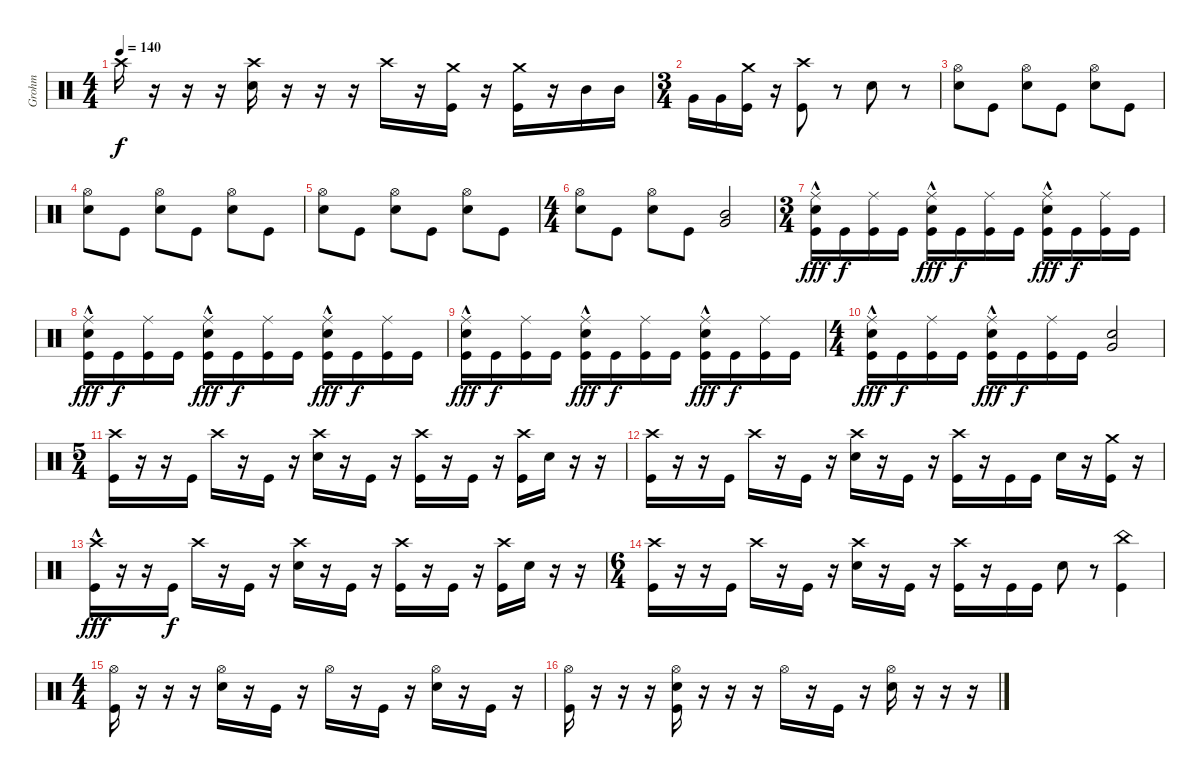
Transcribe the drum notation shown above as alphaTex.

\track ("Grohm" "Grohm") {instrument percussion}
\staff {score}
\articulation defaults
\ts (4 4)
\tempo 140
\clef neutral
\ks c "Crash high (hit)".16{dy f}
r.16 r.16 r.16 ("Crash high (hit)" "Snare (hit) 2").16 r.16 r.16 r.16 "Crash high (hit)".16 r.16 ("Crash medium (hit)" "Kick (hit)").16 r.16 ("Crash medium (hit)" "Kick (hit)").16 r.16 "Mid Tom (hit)".16 "Mid Tom (hit)".16 |
\ts (3 4)
"Very Low Tom (hit)".16 "Very Low Tom (hit)".16 ("Crash medium (hit)" "Kick (hit)").16 r.16 ("Crash high (hit)" "Kick (hit)").8 r.8 "Snare (hit) 2".8 r.8 |
("Hi-Hat (open)" "Snare (hit) 2").8 "Kick (hit)".8 ("Hi-Hat (open)" "Snare (hit) 2").8 "Kick (hit)".8 ("Hi-Hat (open)" "Snare (hit) 2").8 "Kick (hit)".8 |
("Hi-Hat (open)" "Snare (hit) 2").8 "Kick (hit)".8 ("Hi-Hat (open)" "Snare (hit) 2").8 "Kick (hit)".8 ("Hi-Hat (open)" "Snare (hit) 2").8 "Kick (hit)".8 |
("Hi-Hat (open)" "Snare (hit) 2").8 "Kick (hit)".8 ("Hi-Hat (open)" "Snare (hit) 2").8 "Kick (hit)".8 ("Hi-Hat (open)" "Snare (hit) 2").8 "Kick (hit)".8 |
\ts (4 4)
("Hi-Hat (open)" "Snare (hit) 2").8 "Kick (hit)".8 ("Hi-Hat (open)" "Snare (hit) 2").8 "Kick (hit)".8 ("Mid Tom (hit)" "Very Low Tom (hit)").2 |
\ts (3 4)
("Ride (middle)"{hac} "Snare (hit) 2" "Kick (hit)").16{dy fff} "Kick (hit)".16{dy f} ("Ride (middle)" "Kick (hit)").16 "Kick (hit)".16 ("Ride (middle)"{hac} "Snare (hit) 2" "Kick (hit)").16{dy fff} "Kick (hit)".16{dy f} ("Ride (middle)" "Kick (hit)").16 "Kick (hit)".16 ("Ride (middle)"{hac} "Snare (hit) 2" "Kick (hit)").16{dy fff} "Kick (hit)".16{dy f} ("Ride (middle)" "Kick (hit)").16 "Kick (hit)".16 |
("Ride (middle)"{hac} "Snare (hit) 2" "Kick (hit)").16{dy fff} "Kick (hit)".16{dy f} ("Ride (middle)" "Kick (hit)").16 "Kick (hit)".16 ("Ride (middle)"{hac} "Snare (hit) 2" "Kick (hit)").16{dy fff} "Kick (hit)".16{dy f} ("Ride (middle)" "Kick (hit)").16 "Kick (hit)".16 ("Ride (middle)"{hac} "Snare (hit) 2" "Kick (hit)").16{dy fff} "Kick (hit)".16{dy f} ("Ride (middle)" "Kick (hit)").16 "Kick (hit)".16 |
("Ride (middle)"{hac} "Snare (hit) 2" "Kick (hit)").16{dy fff} "Kick (hit)".16{dy f} ("Ride (middle)" "Kick (hit)").16 "Kick (hit)".16 ("Ride (middle)"{hac} "Snare (hit) 2" "Kick (hit)").16{dy fff} "Kick (hit)".16{dy f} ("Ride (middle)" "Kick (hit)").16 "Kick (hit)".16 ("Ride (middle)"{hac} "Snare (hit) 2" "Kick (hit)").16{dy fff} "Kick (hit)".16{dy f} ("Ride (middle)" "Kick (hit)").16 "Kick (hit)".16 |
\ts (4 4)
("Ride (middle)"{hac} "Snare (hit) 2" "Kick (hit)").16{dy fff} "Kick (hit)".16{dy f} ("Ride (middle)" "Kick (hit)").16 "Kick (hit)".16 ("Ride (middle)"{hac} "Snare (hit) 2" "Kick (hit)").16{dy fff} "Kick (hit)".16{dy f} ("Ride (middle)" "Kick (hit)").16 "Kick (hit)".16 ("Snare (hit) 2" "Very Low Tom (hit)").2 |
\ts (5 4)
("Crash high (hit)" "Kick (hit)").16 r.16 r.16 "Kick (hit)".16 "Crash high (hit)".16 r.16 "Kick (hit)".16 r.16 ("Crash high (hit)" "Snare (hit) 2").16 r.16 "Kick (hit)".16 r.16 ("Crash high (hit)" "Kick (hit)").16 r.16 "Kick (hit)".16 r.16 ("Crash high (hit)" "Kick (hit)").16 "Snare (hit) 2".16 r.16 r.16 |
("Crash high (hit)" "Kick (hit)").16 r.16 r.16 "Kick (hit)".16 "Crash high (hit)".16 r.16 "Kick (hit)".16 r.16 ("Crash high (hit)" "Snare (hit) 2").16 r.16 "Kick (hit)".16 r.16 ("Crash high (hit)" "Kick (hit)").16 r.16 "Kick (hit)".16 "Kick (hit)".16 "Snare (hit) 2".16 r.16 ("Crash medium (hit)" "Kick (hit)").16 r.16 |
("Crash high (hit)" "Kick (hit)"{hac}).16{dy fff} r.16 r.16 "Kick (hit)".16{dy f} "Crash high (hit)".16 r.16 "Kick (hit)".16 r.16 ("Crash high (hit)" "Snare (hit) 2").16 r.16 "Kick (hit)".16 r.16 ("Crash high (hit)" "Kick (hit)").16 r.16 "Kick (hit)".16 r.16 ("Crash high (hit)" "Kick (hit)").16 "Snare (hit) 2".16 r.16 r.16 |
\ts (6 4)
("Crash high (hit)" "Kick (hit)").16 r.16 r.16 "Kick (hit)".16 "Crash high (hit)".16 r.16 "Kick (hit)".16 r.16 ("Crash high (hit)" "Snare (hit) 2").16 r.16 "Kick (hit)".16 r.16 ("Crash high (hit)" "Kick (hit)").16 r.16 "Kick (hit)".16 "Kick (hit)".16 "Snare (hit) 2".8 r.8 ("China (hit)" "Kick (hit)").4 |
\ts (4 4)
("Hi-Hat (open)" "Kick (hit)").16 r.16 r.16 r.16 ("Hi-Hat (open)" "Snare (hit) 2").16 r.16 "Kick (hit)".16 r.16 "Hi-Hat (open)".16 r.16 "Kick (hit)".16 r.16 ("Hi-Hat (open)" "Snare (hit) 2").16 r.16 "Kick (hit)".16 r.16 |
("Hi-Hat (open)" "Kick (hit)").16 r.16 r.16 r.16 ("Hi-Hat (open)" "Snare (hit) 2" "Kick (hit)").16 r.16 r.16 r.16 "Hi-Hat (open)".16 r.16 "Kick (hit)".16 r.16 ("Hi-Hat (open)" "Snare (hit) 2").16 r.16 r.16 r.16
